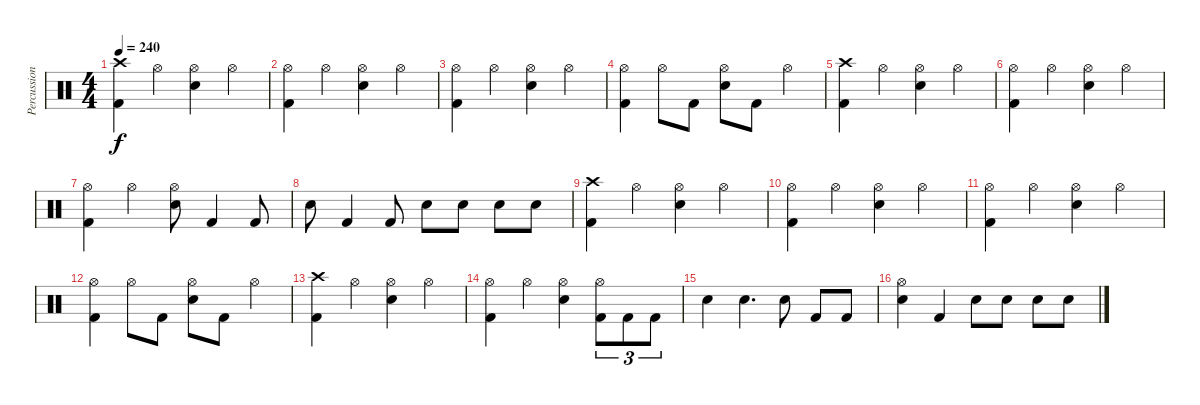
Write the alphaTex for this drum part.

\track ("Percussion" "Percussion") {instrument percussion}
\staff {score}
\articulation defaults
\ts (4 4)
\tempo 240
\clef neutral
\ks c
("Crash high (hit)" "Kick (hit) 2").4{dy f} "Hi-Hat (open)".4 ("Hi-Hat (open)" "Snare (hit) 2").4 "Hi-Hat (open)".4 |
("Hi-Hat (open)" "Kick (hit) 2").4 "Hi-Hat (open)".4 ("Hi-Hat (open)" "Snare (hit) 2").4 "Hi-Hat (open)".4 |
("Hi-Hat (open)" "Kick (hit) 2").4 "Hi-Hat (open)".4 ("Hi-Hat (open)" "Snare (hit) 2").4 "Hi-Hat (open)".4 |
("Hi-Hat (open)" "Kick (hit) 2").4 "Hi-Hat (open)".8 "Kick (hit) 2".8 ("Hi-Hat (open)" "Snare (hit) 2").8 "Kick (hit) 2".8 "Hi-Hat (open)".4 |
("Crash high (hit)" "Kick (hit) 2").4 "Hi-Hat (open)".4 ("Hi-Hat (open)" "Snare (hit) 2").4 "Hi-Hat (open)".4 |
("Hi-Hat (open)" "Kick (hit) 2").4 "Hi-Hat (open)".4 ("Hi-Hat (open)" "Snare (hit) 2").4 "Hi-Hat (open)".4 |
("Hi-Hat (open)" "Kick (hit) 2").4 "Hi-Hat (open)".4 ("Hi-Hat (open)" "Snare (hit) 2").8 "Kick (hit) 2".4 "Kick (hit) 2".8 |
"Snare (hit) 2".8 "Kick (hit) 2".4 "Kick (hit) 2".8 "Snare (hit) 2".8 "Snare (hit) 2".8 "Snare (hit) 2".8 "Snare (hit) 2".8 |
("Crash high (hit)" "Kick (hit) 2").4 "Hi-Hat (open)".4 ("Hi-Hat (open)" "Snare (hit) 2").4 "Hi-Hat (open)".4 |
("Hi-Hat (open)" "Kick (hit) 2").4 "Hi-Hat (open)".4 ("Hi-Hat (open)" "Snare (hit) 2").4 "Hi-Hat (open)".4 |
("Hi-Hat (open)" "Kick (hit) 2").4 "Hi-Hat (open)".4 ("Hi-Hat (open)" "Snare (hit) 2").4 "Hi-Hat (open)".4 |
("Hi-Hat (open)" "Kick (hit) 2").4 "Hi-Hat (open)".8 "Kick (hit) 2".8 ("Hi-Hat (open)" "Snare (hit) 2").8 "Kick (hit) 2".8 "Hi-Hat (open)".4 |
("Crash high (hit)" "Kick (hit) 2").4 "Hi-Hat (open)".4 ("Hi-Hat (open)" "Snare (hit) 2").4 "Hi-Hat (open)".4 |
("Hi-Hat (open)" "Kick (hit) 2").4 "Hi-Hat (open)".4 ("Hi-Hat (open)" "Snare (hit) 2").4 ("Hi-Hat (open)" "Kick (hit) 2").8{tu (3 2)} "Kick (hit) 2".8{tu (3 2)} "Kick (hit) 2".8{tu (3 2)} |
"Snare (hit) 2".4 "Snare (hit) 2".4{d} "Snare (hit) 2".8 "Kick (hit) 2".8 "Kick (hit) 2".8 |
("Hi-Hat (open)" "Snare (hit) 2").4 "Kick (hit) 2".4 "Snare (hit) 2".8 "Snare (hit) 2".8 "Snare (hit) 2".8 "Snare (hit) 2".8
